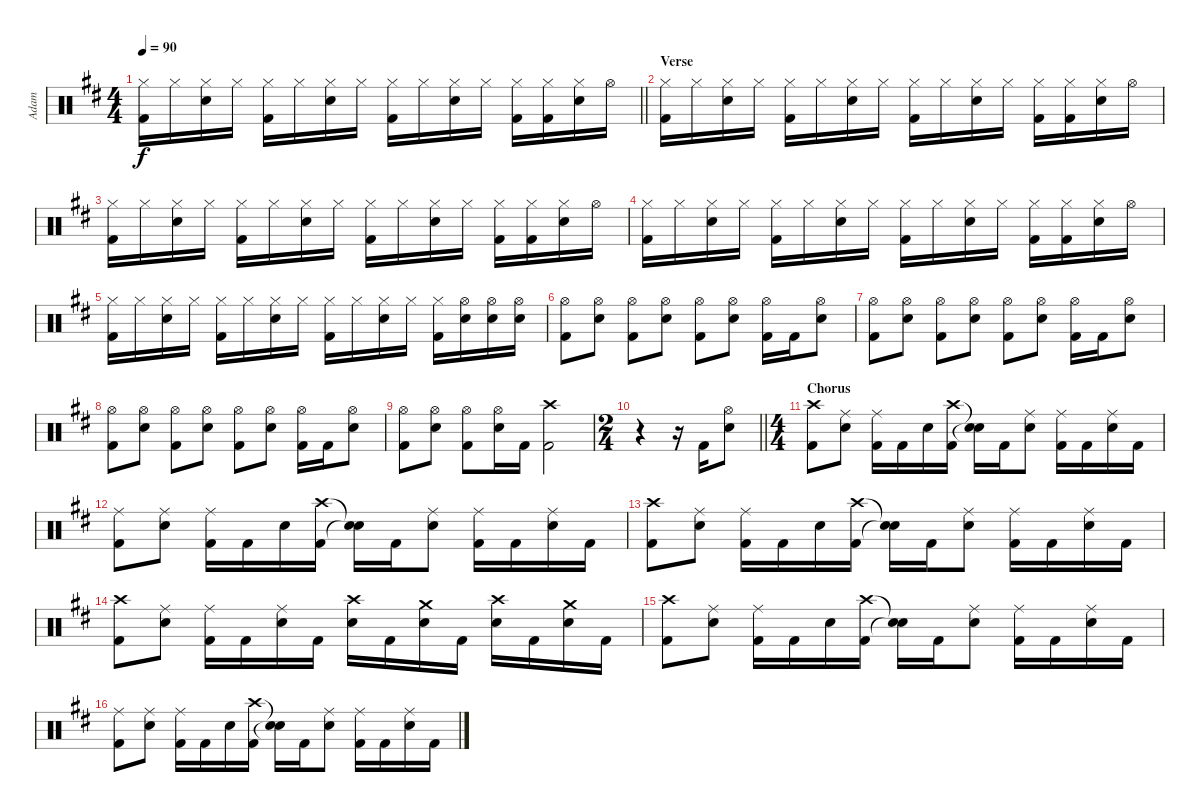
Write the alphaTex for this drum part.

\track ("Adam" "Adam") {instrument percussion}
\staff {score}
\articulation defaults
\ts (4 4)
\tempo 90
\clef neutral
\barLineRight lightlight
\ks d
("Hi-Hat (closed)" "Kick (hit) 2").16{dy f} "Hi-Hat (closed)".16 ("Hi-Hat (closed)" "Snare (hit) 2").16 "Hi-Hat (closed)".16 ("Hi-Hat (closed)" "Kick (hit) 2").16 "Hi-Hat (closed)".16 ("Hi-Hat (closed)" "Snare (hit) 2").16 "Hi-Hat (closed)".16 ("Hi-Hat (closed)" "Kick (hit) 2").16 "Hi-Hat (closed)".16 ("Hi-Hat (closed)" "Snare (hit) 2").16 "Hi-Hat (closed)".16 ("Hi-Hat (closed)" "Kick (hit) 2").16 ("Hi-Hat (closed)" "Kick (hit) 2").16 ("Hi-Hat (closed)" "Snare (hit) 2").16 "Hi-Hat (open)".16 |
\section ("" "Verse")
("Hi-Hat (closed)" "Kick (hit) 2").16 "Hi-Hat (closed)".16 ("Hi-Hat (closed)" "Snare (hit) 2").16 "Hi-Hat (closed)".16 ("Hi-Hat (closed)" "Kick (hit) 2").16 "Hi-Hat (closed)".16 ("Hi-Hat (closed)" "Snare (hit) 2").16 "Hi-Hat (closed)".16 ("Hi-Hat (closed)" "Kick (hit) 2").16 "Hi-Hat (closed)".16 ("Hi-Hat (closed)" "Snare (hit) 2").16 "Hi-Hat (closed)".16 ("Hi-Hat (closed)" "Kick (hit) 2").16 ("Hi-Hat (closed)" "Kick (hit) 2").16 ("Hi-Hat (closed)" "Snare (hit) 2").16 "Hi-Hat (open)".16 |
("Hi-Hat (closed)" "Kick (hit) 2").16 "Hi-Hat (closed)".16 ("Hi-Hat (closed)" "Snare (hit) 2").16 "Hi-Hat (closed)".16 ("Hi-Hat (closed)" "Kick (hit) 2").16 "Hi-Hat (closed)".16 ("Hi-Hat (closed)" "Snare (hit) 2").16 "Hi-Hat (closed)".16 ("Hi-Hat (closed)" "Kick (hit) 2").16 "Hi-Hat (closed)".16 ("Hi-Hat (closed)" "Snare (hit) 2").16 "Hi-Hat (closed)".16 ("Hi-Hat (closed)" "Kick (hit) 2").16 ("Hi-Hat (closed)" "Kick (hit) 2").16 ("Hi-Hat (closed)" "Snare (hit) 2").16 "Hi-Hat (open)".16 |
("Hi-Hat (closed)" "Kick (hit) 2").16 "Hi-Hat (closed)".16 ("Hi-Hat (closed)" "Snare (hit) 2").16 "Hi-Hat (closed)".16 ("Hi-Hat (closed)" "Kick (hit) 2").16 "Hi-Hat (closed)".16 ("Hi-Hat (closed)" "Snare (hit) 2").16 "Hi-Hat (closed)".16 ("Hi-Hat (closed)" "Kick (hit) 2").16 "Hi-Hat (closed)".16 ("Hi-Hat (closed)" "Snare (hit) 2").16 "Hi-Hat (closed)".16 ("Hi-Hat (closed)" "Kick (hit) 2").16 ("Hi-Hat (closed)" "Kick (hit) 2").16 ("Hi-Hat (closed)" "Snare (hit) 2").16 "Hi-Hat (open)".16 |
("Hi-Hat (closed)" "Kick (hit) 2").16 "Hi-Hat (closed)".16 ("Hi-Hat (closed)" "Snare (hit) 2").16 "Hi-Hat (closed)".16 ("Hi-Hat (closed)" "Kick (hit) 2").16 "Hi-Hat (closed)".16 ("Hi-Hat (closed)" "Snare (hit) 2").16 "Hi-Hat (closed)".16 ("Hi-Hat (closed)" "Kick (hit) 2").16 "Hi-Hat (closed)".16 ("Hi-Hat (closed)" "Snare (hit) 2").16 "Hi-Hat (closed)".16 ("Hi-Hat (closed)" "Kick (hit) 2").16 ("Hi-Hat (open)" "Snare (hit) 2").16 ("Hi-Hat (open)" "Snare (hit) 2").16 ("Hi-Hat (open)" "Snare (hit) 2").16 |
("Hi-Hat (open)" "Kick (hit) 2").8 ("Hi-Hat (open)" "Snare (hit) 2").8 ("Hi-Hat (open)" "Kick (hit) 2").8 ("Hi-Hat (open)" "Snare (hit) 2").8 ("Hi-Hat (open)" "Kick (hit) 2").8 ("Hi-Hat (open)" "Snare (hit) 2").8 ("Hi-Hat (open)" "Kick (hit) 2").16 "Kick (hit) 2".16 ("Hi-Hat (open)" "Snare (hit) 2").8 |
("Hi-Hat (open)" "Kick (hit) 2").8 ("Hi-Hat (open)" "Snare (hit) 2").8 ("Hi-Hat (open)" "Kick (hit) 2").8 ("Hi-Hat (open)" "Snare (hit) 2").8 ("Hi-Hat (open)" "Kick (hit) 2").8 ("Hi-Hat (open)" "Snare (hit) 2").8 ("Hi-Hat (open)" "Kick (hit) 2").16 "Kick (hit) 2".16 ("Hi-Hat (open)" "Snare (hit) 2").8 |
("Hi-Hat (open)" "Kick (hit) 2").8 ("Hi-Hat (open)" "Snare (hit) 2").8 ("Hi-Hat (open)" "Kick (hit) 2").8 ("Hi-Hat (open)" "Snare (hit) 2").8 ("Hi-Hat (open)" "Kick (hit) 2").8 ("Hi-Hat (open)" "Snare (hit) 2").8 ("Hi-Hat (open)" "Kick (hit) 2").16 "Kick (hit) 2".16 ("Hi-Hat (open)" "Snare (hit) 2").8 |
("Hi-Hat (open)" "Kick (hit) 2").8 ("Hi-Hat (open)" "Snare (hit) 2").8 ("Hi-Hat (open)" "Kick (hit) 2").8 ("Hi-Hat (open)" "Snare (hit) 2").16 "Kick (hit) 2".16 ("Crash high (hit)" "Kick (hit) 2").2 |
\ts (2 4)
\barLineRight lightlight
r.4 r.16 "Kick (hit) 2".16 ("Hi-Hat (open)" "Snare (hit) 2").8 |
\ts (4 4)
\section ("" "Chorus")
("Crash high (hit)" "Kick (hit) 2").8 ("Ride (middle)" "Snare (hit) 2").8 ("Ride (middle)" "Kick (hit) 2").16 "Kick (hit) 2".16 "Snare (hit) 2".16 ("Crash high (hit)" "Kick (hit) 2").16 ("Snare (hit)"{t} "Snare (hit)"{t}).16 "Kick (hit) 2".16 ("Ride (middle)" "Snare (hit) 2").8 ("Ride (middle)" "Kick (hit) 2").16 "Kick (hit) 2".16 ("Ride (middle)" "Snare (hit) 2").16 "Kick (hit) 2".16 |
("Ride (middle)" "Kick (hit) 2").8 ("Ride (middle)" "Snare (hit) 2").8 ("Ride (middle)" "Kick (hit) 2").16 "Kick (hit) 2".16 "Snare (hit) 2".16 ("Crash high (hit)" "Kick (hit) 2").16 ("Snare (hit)"{t} "Snare (hit)"{t}).16 "Kick (hit) 2".16 ("Ride (middle)" "Snare (hit) 2").8 ("Ride (middle)" "Kick (hit) 2").16 "Kick (hit) 2".16 ("Ride (middle)" "Snare (hit) 2").16 "Kick (hit) 2".16 |
("Crash high (hit)" "Kick (hit) 2").8 ("Ride (middle)" "Snare (hit) 2").8 ("Ride (middle)" "Kick (hit) 2").16 "Kick (hit) 2".16 "Snare (hit) 2".16 ("Crash high (hit)" "Kick (hit) 2").16 ("Snare (hit)"{t} "Snare (hit)"{t}).16 "Kick (hit) 2".16 ("Ride (middle)" "Snare (hit) 2").8 ("Ride (middle)" "Kick (hit) 2").16 "Kick (hit) 2".16 ("Ride (middle)" "Snare (hit) 2").16 "Kick (hit) 2".16 |
("Crash high (hit)" "Kick (hit) 2").8 ("Ride (middle)" "Snare (hit) 2").8 ("Ride (middle)" "Kick (hit) 2").16 "Kick (hit) 2".16 ("Ride (middle)" "Snare (hit) 2").16 "Kick (hit) 2".16 ("Crash high (hit)" "Snare (hit) 2").16 "Kick (hit) 2".16 ("Crash medium (hit)" "Snare (hit) 2").16 "Kick (hit) 2".16 ("Crash high (hit)" "Snare (hit) 2").16 "Kick (hit) 2".16 ("Crash medium (hit)" "Snare (hit) 2").16 "Kick (hit) 2".16 |
("Crash high (hit)" "Kick (hit) 2").8 ("Ride (middle)" "Snare (hit) 2").8 ("Ride (middle)" "Kick (hit) 2").16 "Kick (hit) 2".16 "Snare (hit) 2".16 ("Crash high (hit)" "Kick (hit) 2").16 ("Snare (hit)"{t} "Snare (hit)"{t}).16 "Kick (hit) 2".16 ("Ride (middle)" "Snare (hit) 2").8 ("Ride (middle)" "Kick (hit) 2").16 "Kick (hit) 2".16 ("Ride (middle)" "Snare (hit) 2").16 "Kick (hit) 2".16 |
("Ride (middle)" "Kick (hit) 2").8 ("Ride (middle)" "Snare (hit) 2").8 ("Ride (middle)" "Kick (hit) 2").16 "Kick (hit) 2".16 "Snare (hit) 2".16 ("Crash high (hit)" "Kick (hit) 2").16 ("Snare (hit)"{t} "Snare (hit)"{t}).16 "Kick (hit) 2".16 ("Ride (middle)" "Snare (hit) 2").8 ("Ride (middle)" "Kick (hit) 2").16 "Kick (hit) 2".16 ("Ride (middle)" "Snare (hit) 2").16 "Kick (hit) 2".16
